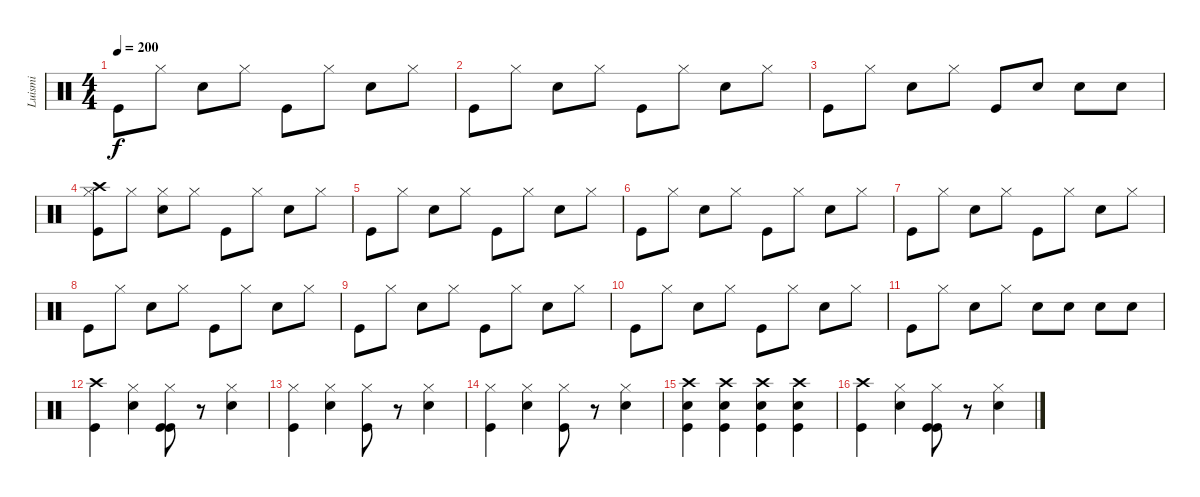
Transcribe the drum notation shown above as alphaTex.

\track ("Luismi" "Luismi") {instrument percussion}
\staff {score}
\articulation defaults
\ts (4 4)
\tempo 200
\clef neutral
\ks c "Kick (hit)".8{dy f} "Hi-Hat (closed)".8 "Snare (hit) 2".8 "Hi-Hat (closed)".8 "Kick (hit)".8 "Hi-Hat (closed)".8 "Snare (hit) 2".8 "Hi-Hat (closed)".8
|
"Kick (hit)".8 "Hi-Hat (closed)".8 "Snare (hit) 2".8 "Hi-Hat (closed)".8 "Kick (hit)".8 "Hi-Hat (closed)".8 "Snare (hit) 2".8 "Hi-Hat (closed)".8 |
"Kick (hit)".8 "Hi-Hat (closed)".8 "Snare (hit) 2".8 "Hi-Hat (closed)".8 "Kick (hit)".8 "Snare (hit) 2".8 "Snare (hit) 2".8 "Snare (hit) 2".8 |
("Kick (hit)" "Crash high (hit)" "Hi-Hat (closed)").8 "Hi-Hat (closed)".8 ("Snare (hit) 2" "Hi-Hat (closed)").8 "Hi-Hat (closed)".8 "Kick (hit)".8 "Hi-Hat (closed)".8 "Snare (hit) 2".8 "Hi-Hat (closed)".8 |
"Kick (hit)".8 "Hi-Hat (closed)".8 "Snare (hit) 2".8 "Hi-Hat (closed)".8 "Kick (hit)".8 "Hi-Hat (closed)".8 "Snare (hit) 2".8 "Hi-Hat (closed)".8 |
"Kick (hit)".8 "Hi-Hat (closed)".8 "Snare (hit) 2".8 "Hi-Hat (closed)".8 "Kick (hit)".8 "Hi-Hat (closed)".8 "Snare (hit) 2".8 "Hi-Hat (closed)".8 |
"Kick (hit)".8 "Hi-Hat (closed)".8 "Snare (hit) 2".8 "Hi-Hat (closed)".8 "Kick (hit)".8 "Hi-Hat (closed)".8 "Snare (hit) 2".8 "Hi-Hat (closed)".8 |
"Kick (hit)".8 "Hi-Hat (closed)".8 "Snare (hit) 2".8 "Hi-Hat (closed)".8 "Kick (hit)".8 "Hi-Hat (closed)".8 "Snare (hit) 2".8 "Hi-Hat (closed)".8 |
"Kick (hit)".8 "Hi-Hat (closed)".8 "Snare (hit) 2".8 "Hi-Hat (closed)".8 "Kick (hit)".8 "Hi-Hat (closed)".8 "Snare (hit) 2".8 "Hi-Hat (closed)".8 |
"Kick (hit)".8 "Hi-Hat (closed)".8 "Snare (hit) 2".8 "Hi-Hat (closed)".8 "Kick (hit)".8 "Hi-Hat (closed)".8 "Snare (hit) 2".8 "Hi-Hat (closed)".8 |
"Kick (hit)".8 "Hi-Hat (closed)".8 "Snare (hit) 2".8 "Hi-Hat (closed)".8 "Snare (hit) 2".8 "Snare (hit) 2".8 "Snare (hit) 2".8 "Snare (hit) 2".8 |
("Crash high (hit)" "Kick (hit)").4 ("Snare (hit) 2" "Hi-Hat (closed)").4 ("Kick (hit)" "Kick (hit)" "Hi-Hat (closed)").8 r.8 ("Snare (hit) 2" "Hi-Hat (closed)").4 |
("Kick (hit)" "Hi-Hat (closed)").4 ("Snare (hit) 2" "Hi-Hat (closed)").4 ("Kick (hit)" "Hi-Hat (closed)").8 r.8 ("Snare (hit) 2" "Hi-Hat (closed)").4 |
("Kick (hit)" "Hi-Hat (closed)").4 ("Snare (hit) 2" "Hi-Hat (closed)").4 ("Kick (hit)" "Hi-Hat (closed)").8 r.8 ("Snare (hit) 2" "Hi-Hat (closed)").4 |
("Kick (hit)" "Snare (hit) 2" "Crash high (hit)").4 ("Snare (hit) 2" "Kick (hit)" "Crash high (hit)").4 ("Snare (hit) 2" "Kick (hit)" "Crash high (hit)").4 ("Snare (hit) 2" "Kick (hit)" "Crash high (hit)").4 |
("Crash high (hit)" "Kick (hit)").4 ("Snare (hit) 2" "Hi-Hat (closed)").4 ("Kick (hit)" "Kick (hit)" "Hi-Hat (closed)").8 r.8 ("Snare (hit) 2" "Hi-Hat (closed)").4
